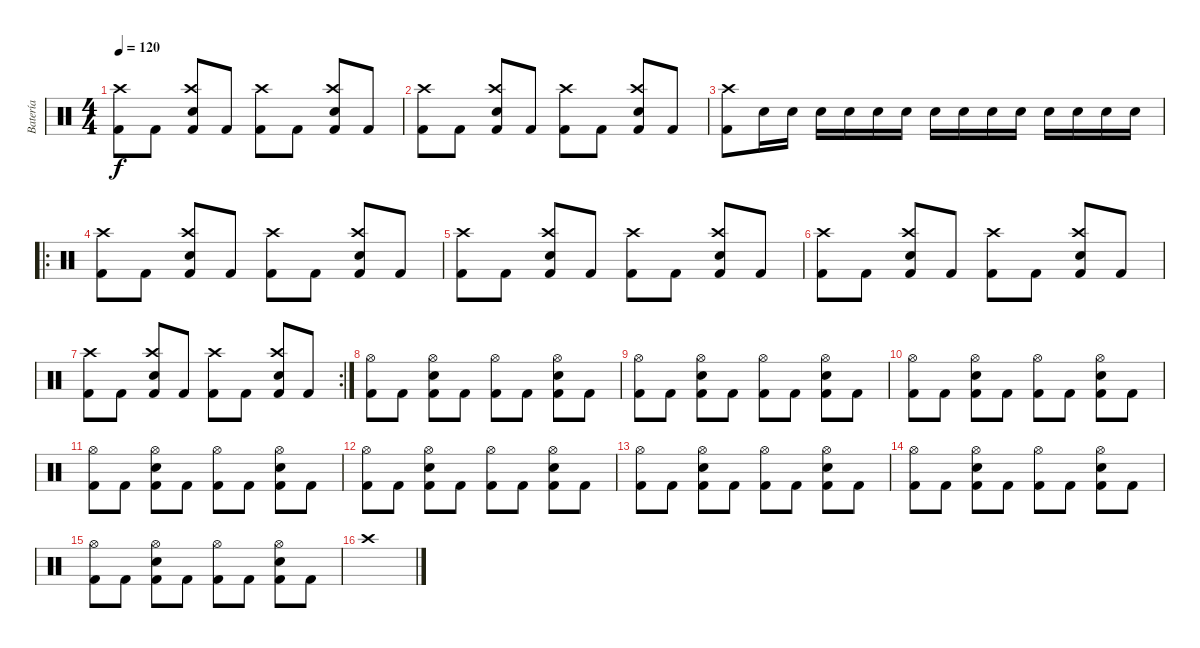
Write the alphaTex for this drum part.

\track ("Batería" "Batería") {instrument percussion}
\staff {score}
\articulation defaults
\ts (4 4)
\tempo 120
\clef neutral
\ks c
("Kick (hit) 2" "Crash high (hit)").8{dy f} "Kick (hit) 2".8 ("Kick (hit) 2" "Electric Snare (hit)" "Crash high (hit)").8 "Kick (hit) 2".8 ("Kick (hit) 2" "Crash high (hit)").8 "Kick (hit) 2".8 ("Kick (hit) 2" "Electric Snare (hit)" "Crash high (hit)").8 "Kick (hit) 2".8 |
("Kick (hit) 2" "Crash high (hit)").8 "Kick (hit) 2".8 ("Kick (hit) 2" "Electric Snare (hit)" "Crash high (hit)").8 "Kick (hit) 2".8 ("Kick (hit) 2" "Crash high (hit)").8 "Kick (hit) 2".8 ("Kick (hit) 2" "Electric Snare (hit)" "Crash high (hit)").8 "Kick (hit) 2".8 |
("Kick (hit) 2" "Crash high (hit)").8 "Electric Snare (hit)".16 "Electric Snare (hit)".16 "Electric Snare (hit)".16 "Electric Snare (hit)".16 "Electric Snare (hit)".16 "Electric Snare (hit)".16 "Electric Snare (hit)".16 "Electric Snare (hit)".16 "Electric Snare (hit)".16 "Electric Snare (hit)".16 "Electric Snare (hit)".16 "Electric Snare (hit)".16 "Electric Snare (hit)".16 "Electric Snare (hit)".16 |
\ro
("Kick (hit) 2" "Crash high (hit)").8 "Kick (hit) 2".8 ("Kick (hit) 2" "Electric Snare (hit)" "Crash high (hit)").8 "Kick (hit) 2".8 ("Kick (hit) 2" "Crash high (hit)").8 "Kick (hit) 2".8 ("Kick (hit) 2" "Electric Snare (hit)" "Crash high (hit)").8 "Kick (hit) 2".8 |
("Kick (hit) 2" "Crash high (hit)").8 "Kick (hit) 2".8 ("Kick (hit) 2" "Electric Snare (hit)" "Crash high (hit)").8 "Kick (hit) 2".8 ("Kick (hit) 2" "Crash high (hit)").8 "Kick (hit) 2".8 ("Kick (hit) 2" "Electric Snare (hit)" "Crash high (hit)").8 "Kick (hit) 2".8 |
("Kick (hit) 2" "Crash high (hit)").8 "Kick (hit) 2".8 ("Kick (hit) 2" "Electric Snare (hit)" "Crash high (hit)").8 "Kick (hit) 2".8 ("Kick (hit) 2" "Crash high (hit)").8 "Kick (hit) 2".8 ("Kick (hit) 2" "Electric Snare (hit)" "Crash high (hit)").8 "Kick (hit) 2".8 |
\rc 2
("Kick (hit) 2" "Crash high (hit)").8 "Kick (hit) 2".8 ("Kick (hit) 2" "Electric Snare (hit)" "Crash high (hit)").8 "Kick (hit) 2".8 ("Kick (hit) 2" "Crash high (hit)").8 "Kick (hit) 2".8 ("Kick (hit) 2" "Electric Snare (hit)" "Crash high (hit)").8 "Kick (hit) 2".8 |
("Kick (hit) 2" "Hi-Hat (open)").8 "Kick (hit) 2".8 ("Kick (hit) 2" "Electric Snare (hit)" "Hi-Hat (open)").8 "Kick (hit) 2".8 ("Kick (hit) 2" "Hi-Hat (open)").8 "Kick (hit) 2".8 ("Kick (hit) 2" "Electric Snare (hit)" "Hi-Hat (open)").8 "Kick (hit) 2".8 |
("Kick (hit) 2" "Hi-Hat (open)").8 "Kick (hit) 2".8 ("Kick (hit) 2" "Electric Snare (hit)" "Hi-Hat (open)").8 "Kick (hit) 2".8 ("Kick (hit) 2" "Hi-Hat (open)").8 "Kick (hit) 2".8 ("Kick (hit) 2" "Electric Snare (hit)" "Hi-Hat (open)").8 "Kick (hit) 2".8 |
("Kick (hit) 2" "Hi-Hat (open)").8 "Kick (hit) 2".8 ("Kick (hit) 2" "Electric Snare (hit)" "Hi-Hat (open)").8 "Kick (hit) 2".8 ("Kick (hit) 2" "Hi-Hat (open)").8 "Kick (hit) 2".8 ("Kick (hit) 2" "Electric Snare (hit)" "Hi-Hat (open)").8 "Kick (hit) 2".8 |
("Kick (hit) 2" "Hi-Hat (open)").8 "Kick (hit) 2".8 ("Kick (hit) 2" "Electric Snare (hit)" "Hi-Hat (open)").8 "Kick (hit) 2".8 ("Kick (hit) 2" "Hi-Hat (open)").8 "Kick (hit) 2".8 ("Kick (hit) 2" "Electric Snare (hit)" "Hi-Hat (open)").8 "Kick (hit) 2".8 |
("Kick (hit) 2" "Hi-Hat (open)").8 "Kick (hit) 2".8 ("Kick (hit) 2" "Electric Snare (hit)" "Hi-Hat (open)").8 "Kick (hit) 2".8 ("Kick (hit) 2" "Hi-Hat (open)").8 "Kick (hit) 2".8 ("Kick (hit) 2" "Electric Snare (hit)" "Hi-Hat (open)").8 "Kick (hit) 2".8 |
("Kick (hit) 2" "Hi-Hat (open)").8 "Kick (hit) 2".8 ("Kick (hit) 2" "Electric Snare (hit)" "Hi-Hat (open)").8 "Kick (hit) 2".8 ("Kick (hit) 2" "Hi-Hat (open)").8 "Kick (hit) 2".8 ("Kick (hit) 2" "Electric Snare (hit)" "Hi-Hat (open)").8 "Kick (hit) 2".8 |
("Kick (hit) 2" "Hi-Hat (open)").8 "Kick (hit) 2".8 ("Kick (hit) 2" "Electric Snare (hit)" "Hi-Hat (open)").8 "Kick (hit) 2".8 ("Kick (hit) 2" "Hi-Hat (open)").8 "Kick (hit) 2".8 ("Kick (hit) 2" "Electric Snare (hit)" "Hi-Hat (open)").8 "Kick (hit) 2".8 |
("Kick (hit) 2" "Hi-Hat (open)").8 "Kick (hit) 2".8 ("Kick (hit) 2" "Electric Snare (hit)" "Hi-Hat (open)").8 "Kick (hit) 2".8 ("Kick (hit) 2" "Hi-Hat (open)").8 "Kick (hit) 2".8 ("Kick (hit) 2" "Electric Snare (hit)" "Hi-Hat (open)").8 "Kick (hit) 2".8 |
"Crash high (hit)".1
